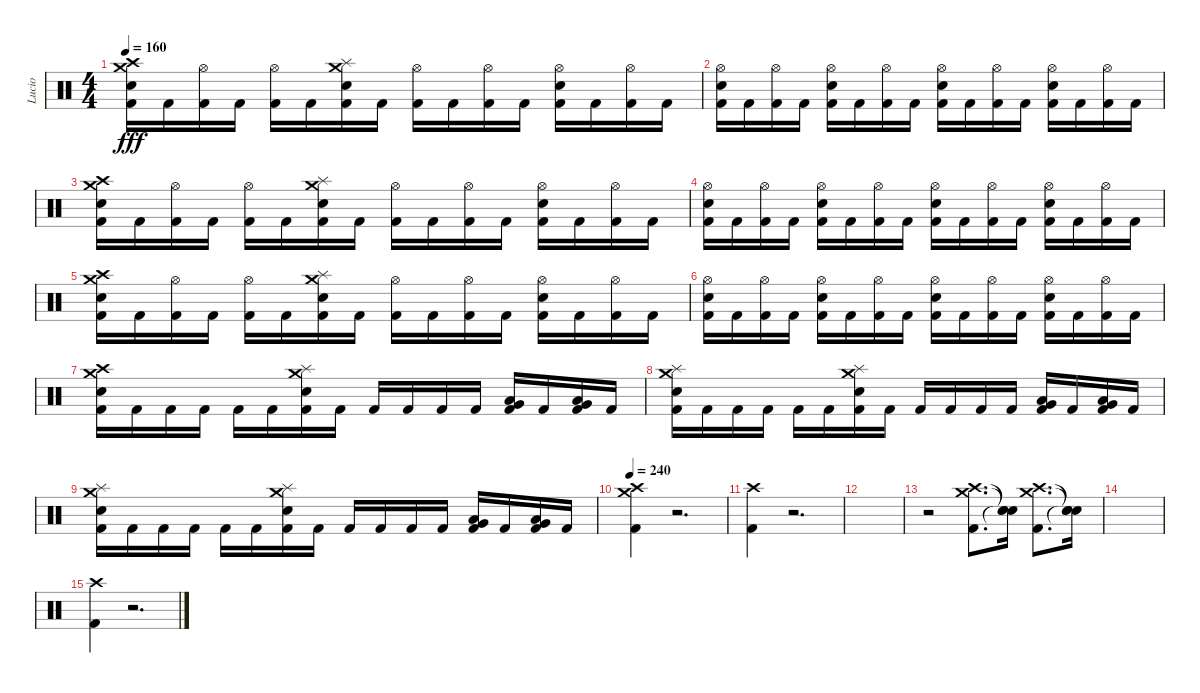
\track ("Lucio" "Lucio") {instrument percussion}
\staff {score}
\articulation defaults
\ts (4 4)
\tempo 160
\clef neutral
\ks c
("Crash medium (hit)" "Crash high (hit)" "Electric Snare (hit)" "Kick (hit) 2").16{dy fff} "Kick (hit) 2".16 ("Hi-Hat (open)" "Kick (hit) 2").16 "Kick (hit) 2".16 ("Hi-Hat (open)" "Kick (hit) 2").16 "Kick (hit) 2".16 ("Crash medium (hit)" "Splash (hit)" "Electric Snare (hit)" "Kick (hit) 2").16 "Kick (hit) 2".16 ("Hi-Hat (open)" "Kick (hit) 2").16 "Kick (hit) 2".16 ("Hi-Hat (open)" "Kick (hit) 2").16 "Kick (hit) 2".16 ("Hi-Hat (open)" "Electric Snare (hit)" "Kick (hit) 2").16 "Kick (hit) 2".16 ("Hi-Hat (open)" "Kick (hit) 2").16 "Kick (hit) 2".16 |
("Hi-Hat (open)" "Electric Snare (hit)" "Kick (hit) 2").16 "Kick (hit) 2".16 ("Hi-Hat (open)" "Kick (hit) 2").16 "Kick (hit) 2".16 ("Hi-Hat (open)" "Electric Snare (hit)" "Kick (hit) 2").16 "Kick (hit) 2".16 ("Hi-Hat (open)" "Kick (hit) 2").16 "Kick (hit) 2".16 ("Hi-Hat (open)" "Electric Snare (hit)" "Kick (hit) 2").16 "Kick (hit) 2".16 ("Hi-Hat (open)" "Kick (hit) 2").16 "Kick (hit) 2".16 ("Hi-Hat (open)" "Electric Snare (hit)" "Kick (hit) 2").16 "Kick (hit) 2".16 ("Hi-Hat (open)" "Kick (hit) 2").16 "Kick (hit) 2".16 |
("Crash medium (hit)" "Crash high (hit)" "Electric Snare (hit)" "Kick (hit) 2").16 "Kick (hit) 2".16 ("Hi-Hat (open)" "Kick (hit) 2").16 "Kick (hit) 2".16 ("Hi-Hat (open)" "Kick (hit) 2").16 "Kick (hit) 2".16 ("Crash medium (hit)" "Splash (hit)" "Electric Snare (hit)" "Kick (hit) 2").16 "Kick (hit) 2".16 ("Hi-Hat (open)" "Kick (hit) 2").16 "Kick (hit) 2".16 ("Hi-Hat (open)" "Kick (hit) 2").16 "Kick (hit) 2".16 ("Hi-Hat (open)" "Electric Snare (hit)" "Kick (hit) 2").16 "Kick (hit) 2".16 ("Hi-Hat (open)" "Kick (hit) 2").16 "Kick (hit) 2".16 |
("Hi-Hat (open)" "Electric Snare (hit)" "Kick (hit) 2").16 "Kick (hit) 2".16 ("Hi-Hat (open)" "Kick (hit) 2").16 "Kick (hit) 2".16 ("Hi-Hat (open)" "Electric Snare (hit)" "Kick (hit) 2").16 "Kick (hit) 2".16 ("Hi-Hat (open)" "Kick (hit) 2").16 "Kick (hit) 2".16 ("Hi-Hat (open)" "Electric Snare (hit)" "Kick (hit) 2").16 "Kick (hit) 2".16 ("Hi-Hat (open)" "Kick (hit) 2").16 "Kick (hit) 2".16 ("Hi-Hat (open)" "Electric Snare (hit)" "Kick (hit) 2").16 "Kick (hit) 2".16 ("Hi-Hat (open)" "Kick (hit) 2").16 "Kick (hit) 2".16 |
("Crash medium (hit)" "Crash high (hit)" "Electric Snare (hit)" "Kick (hit) 2").16 "Kick (hit) 2".16 ("Hi-Hat (open)" "Kick (hit) 2").16 "Kick (hit) 2".16 ("Hi-Hat (open)" "Kick (hit) 2").16 "Kick (hit) 2".16 ("Crash medium (hit)" "Splash (hit)" "Electric Snare (hit)" "Kick (hit) 2").16 "Kick (hit) 2".16 ("Hi-Hat (open)" "Kick (hit) 2").16 "Kick (hit) 2".16 ("Hi-Hat (open)" "Kick (hit) 2").16 "Kick (hit) 2".16 ("Hi-Hat (open)" "Electric Snare (hit)" "Kick (hit) 2").16 "Kick (hit) 2".16 ("Hi-Hat (open)" "Kick (hit) 2").16 "Kick (hit) 2".16 |
("Hi-Hat (open)" "Electric Snare (hit)" "Kick (hit) 2").16 "Kick (hit) 2".16 ("Hi-Hat (open)" "Kick (hit) 2").16 "Kick (hit) 2".16 ("Hi-Hat (open)" "Electric Snare (hit)" "Kick (hit) 2").16 "Kick (hit) 2".16 ("Hi-Hat (open)" "Kick (hit) 2").16 "Kick (hit) 2".16 ("Hi-Hat (open)" "Electric Snare (hit)" "Kick (hit) 2").16 "Kick (hit) 2".16 ("Hi-Hat (open)" "Kick (hit) 2").16 "Kick (hit) 2".16 ("Hi-Hat (open)" "Electric Snare (hit)" "Kick (hit) 2").16 "Kick (hit) 2".16 ("Hi-Hat (open)" "Kick (hit) 2").16 "Kick (hit) 2".16 |
("Crash medium (hit)" "Crash high (hit)" "Electric Snare (hit)" "Kick (hit) 2").16 "Kick (hit) 2".16 "Kick (hit) 2".16 "Kick (hit) 2".16 "Kick (hit) 2".16 "Kick (hit) 2".16 ("Crash medium (hit)" "Splash (hit)" "Electric Snare (hit)" "Kick (hit) 2").16 "Kick (hit) 2".16 "Kick (hit) 2".16 "Kick (hit) 2".16 "Kick (hit) 2".16 "Kick (hit) 2".16 ("Low Tom (hit)" "Very Low Tom (hit)" "Kick (hit) 2").16 "Kick (hit) 2".16 ("Low Tom (hit)" "Very Low Tom (hit)" "Kick (hit) 2").16 "Kick (hit) 2".16 |
("Crash medium (hit)" "Splash (hit)" "Electric Snare (hit)" "Kick (hit) 2").16 "Kick (hit) 2".16 "Kick (hit) 2".16 "Kick (hit) 2".16 "Kick (hit) 2".16 "Kick (hit) 2".16 ("Crash medium (hit)" "Splash (hit)" "Electric Snare (hit)" "Kick (hit) 2").16 "Kick (hit) 2".16 "Kick (hit) 2".16 "Kick (hit) 2".16 "Kick (hit) 2".16 "Kick (hit) 2".16 ("Low Tom (hit)" "Very Low Tom (hit)" "Kick (hit) 2").16 "Kick (hit) 2".16 ("Low Tom (hit)" "Very Low Tom (hit)" "Kick (hit) 2").16 "Kick (hit) 2".16 |
("Crash medium (hit)" "Splash (hit)" "Electric Snare (hit)" "Kick (hit) 2").16 "Kick (hit) 2".16 "Kick (hit) 2".16 "Kick (hit) 2".16 "Kick (hit) 2".16 "Kick (hit) 2".16 ("Crash medium (hit)" "Splash (hit)" "Electric Snare (hit)" "Kick (hit) 2").16 "Kick (hit) 2".16 "Kick (hit) 2".16 "Kick (hit) 2".16 "Kick (hit) 2".16 "Kick (hit) 2".16 ("Low Tom (hit)" "Very Low Tom (hit)" "Kick (hit) 2").16 "Kick (hit) 2".16 ("Low Tom (hit)" "Very Low Tom (hit)" "Kick (hit) 2").16 "Kick (hit) 2".16 |
\tempo 240
("Crash medium (hit)" "Crash high (hit)" "Kick (hit) 2").4 r.2{d volume 0} |
("Crash high (hit)" "Kick (hit) 2").4{volume 16} r.2{d volume 0} |
|
r.2{volume 16} ("Crash medium (hit)" "Crash high (hit)" "Kick (hit) 2").8{d} ("Snare (hit)"{t} "Snare (hit)"{t} "Snare (hit)"{t}).16{volume 0} ("Crash medium (hit)" "Crash high (hit)" "Kick (hit) 2").8{d volume 16} ("Snare (hit)"{t} "Snare (hit)"{t} "Snare (hit)"{t}).16{volume 0} |
|
("Crash high (hit)" "Kick (hit) 2").4{volume 16} r.2{d volume 0}
